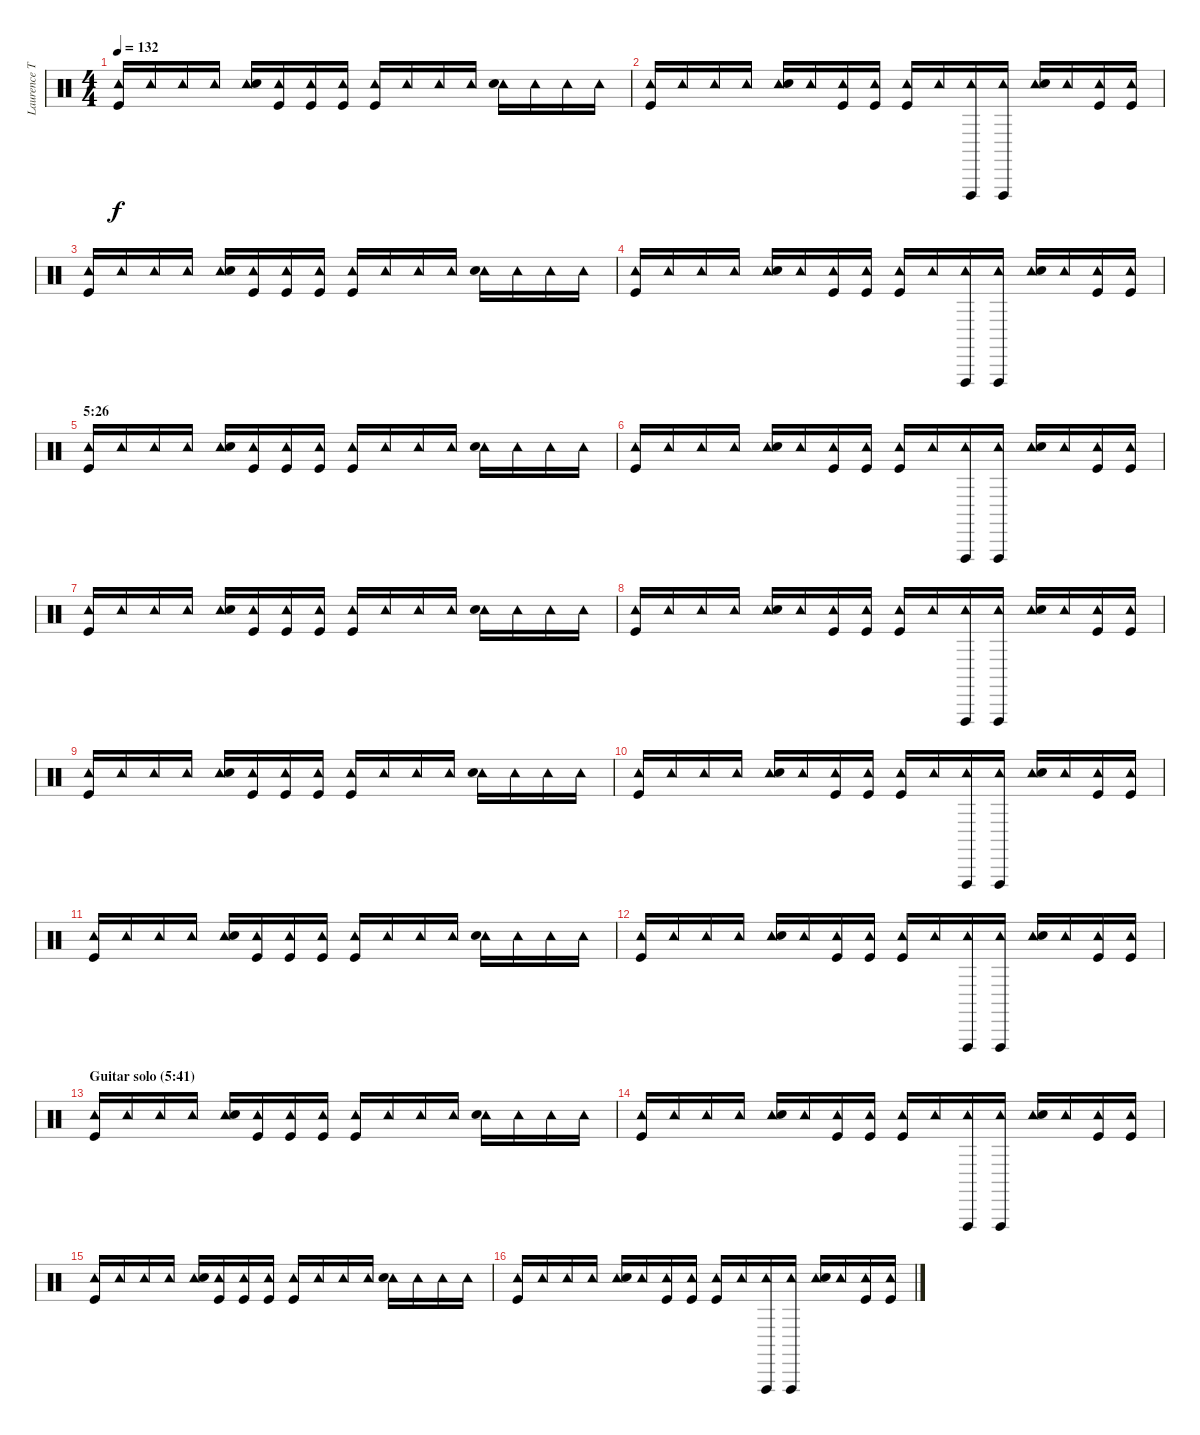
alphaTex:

\track ("Laurence Tolhurst (drums)" "Laurence T") {instrument percussion}
\staff {score}
\articulation defaults
\ts (4 4)
\tempo 132
\clef neutral
\ks c
("Tambourine (hit)" "Kick (hit)").16{dy f} "Tambourine (hit)".16 "Tambourine (hit)".16 "Tambourine (hit)".16 ("Tambourine (hit)" "Snare (hit) 2").16 ("Tambourine (hit)" "Kick (hit)").16 ("Tambourine (hit)" "Kick (hit)").16 ("Tambourine (hit)" "Kick (hit)").16 ("Tambourine (hit)" "Kick (hit)").16 "Tambourine (hit)".16 "Tambourine (hit)".16 "Tambourine (hit)".16 ("Tambourine (hit)" "Snare (hit) 2").16 "Tambourine (hit)".16 "Tambourine (hit)".16 "Tambourine (hit)".16 |
("Tambourine (hit)" "Kick (hit)").16 "Tambourine (hit)".16 "Tambourine (hit)".16 "Tambourine (hit)".16 ("Tambourine (hit)" "Snare (hit) 2").16 "Tambourine (hit)".16 ("Tambourine (hit)" "Kick (hit)").16 ("Tambourine (hit)" "Kick (hit)").16 ("Tambourine (hit)" "Kick (hit)").16 "Tambourine (hit)".16 ("Tambourine (hit)" "Vibraslap (hit)").16 ("Tambourine (hit)" "Vibraslap (hit)").16 ("Tambourine (hit)" "Snare (hit) 2").16 "Tambourine (hit)".16 ("Tambourine (hit)" "Kick (hit)").16 ("Tambourine (hit)" "Kick (hit)").16 |
("Tambourine (hit)" "Kick (hit)").16 "Tambourine (hit)".16 "Tambourine (hit)".16 "Tambourine (hit)".16 ("Tambourine (hit)" "Snare (hit) 2").16 ("Tambourine (hit)" "Kick (hit)").16 ("Tambourine (hit)" "Kick (hit)").16 ("Tambourine (hit)" "Kick (hit)").16 ("Tambourine (hit)" "Kick (hit)").16 "Tambourine (hit)".16 "Tambourine (hit)".16 "Tambourine (hit)".16 ("Tambourine (hit)" "Snare (hit) 2").16 "Tambourine (hit)".16 "Tambourine (hit)".16 "Tambourine (hit)".16 |
("Tambourine (hit)" "Kick (hit)").16 "Tambourine (hit)".16 "Tambourine (hit)".16 "Tambourine (hit)".16 ("Tambourine (hit)" "Snare (hit) 2").16 "Tambourine (hit)".16 ("Tambourine (hit)" "Kick (hit)").16 ("Tambourine (hit)" "Kick (hit)").16 ("Tambourine (hit)" "Kick (hit)").16 "Tambourine (hit)".16 ("Tambourine (hit)" "Vibraslap (hit)").16 ("Tambourine (hit)" "Vibraslap (hit)").16 ("Tambourine (hit)" "Snare (hit) 2").16 "Tambourine (hit)".16 ("Tambourine (hit)" "Kick (hit)").16 ("Tambourine (hit)" "Kick (hit)").16 |
\section ("" "5:26")
("Tambourine (hit)" "Kick (hit)").16 "Tambourine (hit)".16 "Tambourine (hit)".16 "Tambourine (hit)".16 ("Tambourine (hit)" "Snare (hit) 2").16 ("Tambourine (hit)" "Kick (hit)").16 ("Tambourine (hit)" "Kick (hit)").16 ("Tambourine (hit)" "Kick (hit)").16 ("Tambourine (hit)" "Kick (hit)").16 "Tambourine (hit)".16 "Tambourine (hit)".16 "Tambourine (hit)".16 ("Tambourine (hit)" "Snare (hit) 2").16 "Tambourine (hit)".16 "Tambourine (hit)".16 "Tambourine (hit)".16 |
("Tambourine (hit)" "Kick (hit)").16 "Tambourine (hit)".16 "Tambourine (hit)".16 "Tambourine (hit)".16 ("Tambourine (hit)" "Snare (hit) 2").16 "Tambourine (hit)".16 ("Tambourine (hit)" "Kick (hit)").16 ("Tambourine (hit)" "Kick (hit)").16 ("Tambourine (hit)" "Kick (hit)").16 "Tambourine (hit)".16 ("Tambourine (hit)" "Vibraslap (hit)").16 ("Tambourine (hit)" "Vibraslap (hit)").16 ("Tambourine (hit)" "Snare (hit) 2").16 "Tambourine (hit)".16 ("Tambourine (hit)" "Kick (hit)").16 ("Tambourine (hit)" "Kick (hit)").16 |
("Tambourine (hit)" "Kick (hit)").16 "Tambourine (hit)".16 "Tambourine (hit)".16 "Tambourine (hit)".16 ("Tambourine (hit)" "Snare (hit) 2").16 ("Tambourine (hit)" "Kick (hit)").16 ("Tambourine (hit)" "Kick (hit)").16 ("Tambourine (hit)" "Kick (hit)").16 ("Tambourine (hit)" "Kick (hit)").16 "Tambourine (hit)".16 "Tambourine (hit)".16 "Tambourine (hit)".16 ("Tambourine (hit)" "Snare (hit) 2").16 "Tambourine (hit)".16 "Tambourine (hit)".16 "Tambourine (hit)".16 |
("Tambourine (hit)" "Kick (hit)").16 "Tambourine (hit)".16 "Tambourine (hit)".16 "Tambourine (hit)".16 ("Tambourine (hit)" "Snare (hit) 2").16 "Tambourine (hit)".16 ("Tambourine (hit)" "Kick (hit)").16 ("Tambourine (hit)" "Kick (hit)").16 ("Tambourine (hit)" "Kick (hit)").16 "Tambourine (hit)".16 ("Tambourine (hit)" "Vibraslap (hit)").16 ("Tambourine (hit)" "Vibraslap (hit)").16 ("Tambourine (hit)" "Snare (hit) 2").16 "Tambourine (hit)".16 ("Tambourine (hit)" "Kick (hit)").16 ("Tambourine (hit)" "Kick (hit)").16 |
("Tambourine (hit)" "Kick (hit)").16 "Tambourine (hit)".16 "Tambourine (hit)".16 "Tambourine (hit)".16 ("Tambourine (hit)" "Snare (hit) 2").16 ("Tambourine (hit)" "Kick (hit)").16 ("Tambourine (hit)" "Kick (hit)").16 ("Tambourine (hit)" "Kick (hit)").16 ("Tambourine (hit)" "Kick (hit)").16 "Tambourine (hit)".16 "Tambourine (hit)".16 "Tambourine (hit)".16 ("Tambourine (hit)" "Snare (hit) 2").16 "Tambourine (hit)".16 "Tambourine (hit)".16 "Tambourine (hit)".16 |
("Tambourine (hit)" "Kick (hit)").16 "Tambourine (hit)".16 "Tambourine (hit)".16 "Tambourine (hit)".16 ("Tambourine (hit)" "Snare (hit) 2").16 "Tambourine (hit)".16 ("Tambourine (hit)" "Kick (hit)").16 ("Tambourine (hit)" "Kick (hit)").16 ("Tambourine (hit)" "Kick (hit)").16 "Tambourine (hit)".16 ("Tambourine (hit)" "Vibraslap (hit)").16 ("Tambourine (hit)" "Vibraslap (hit)").16 ("Tambourine (hit)" "Snare (hit) 2").16 "Tambourine (hit)".16 ("Tambourine (hit)" "Kick (hit)").16 ("Tambourine (hit)" "Kick (hit)").16 |
("Tambourine (hit)" "Kick (hit)").16 "Tambourine (hit)".16 "Tambourine (hit)".16 "Tambourine (hit)".16 ("Tambourine (hit)" "Snare (hit) 2").16 ("Tambourine (hit)" "Kick (hit)").16 ("Tambourine (hit)" "Kick (hit)").16 ("Tambourine (hit)" "Kick (hit)").16 ("Tambourine (hit)" "Kick (hit)").16 "Tambourine (hit)".16 "Tambourine (hit)".16 "Tambourine (hit)".16 ("Tambourine (hit)" "Snare (hit) 2").16 "Tambourine (hit)".16 "Tambourine (hit)".16 "Tambourine (hit)".16 |
("Tambourine (hit)" "Kick (hit)").16 "Tambourine (hit)".16 "Tambourine (hit)".16 "Tambourine (hit)".16 ("Tambourine (hit)" "Snare (hit) 2").16 "Tambourine (hit)".16 ("Tambourine (hit)" "Kick (hit)").16 ("Tambourine (hit)" "Kick (hit)").16 ("Tambourine (hit)" "Kick (hit)").16 "Tambourine (hit)".16 ("Tambourine (hit)" "Vibraslap (hit)").16 ("Tambourine (hit)" "Vibraslap (hit)").16 ("Tambourine (hit)" "Snare (hit) 2").16 "Tambourine (hit)".16 ("Tambourine (hit)" "Kick (hit)").16 ("Tambourine (hit)" "Kick (hit)").16 |
\section ("" "Guitar solo (5:41)")
("Tambourine (hit)" "Kick (hit)").16 "Tambourine (hit)".16 "Tambourine (hit)".16 "Tambourine (hit)".16 ("Tambourine (hit)" "Snare (hit) 2").16 ("Tambourine (hit)" "Kick (hit)").16 ("Tambourine (hit)" "Kick (hit)").16 ("Tambourine (hit)" "Kick (hit)").16 ("Tambourine (hit)" "Kick (hit)").16 "Tambourine (hit)".16 "Tambourine (hit)".16 "Tambourine (hit)".16 ("Tambourine (hit)" "Snare (hit) 2").16 "Tambourine (hit)".16 "Tambourine (hit)".16 "Tambourine (hit)".16 |
("Tambourine (hit)" "Kick (hit)").16 "Tambourine (hit)".16 "Tambourine (hit)".16 "Tambourine (hit)".16 ("Tambourine (hit)" "Snare (hit) 2").16 "Tambourine (hit)".16 ("Tambourine (hit)" "Kick (hit)").16 ("Tambourine (hit)" "Kick (hit)").16 ("Tambourine (hit)" "Kick (hit)").16 "Tambourine (hit)".16 ("Tambourine (hit)" "Vibraslap (hit)").16 ("Tambourine (hit)" "Vibraslap (hit)").16 ("Tambourine (hit)" "Snare (hit) 2").16 "Tambourine (hit)".16 ("Tambourine (hit)" "Kick (hit)").16 ("Tambourine (hit)" "Kick (hit)").16 |
("Tambourine (hit)" "Kick (hit)").16 "Tambourine (hit)".16 "Tambourine (hit)".16 "Tambourine (hit)".16 ("Tambourine (hit)" "Snare (hit) 2").16 ("Tambourine (hit)" "Kick (hit)").16 ("Tambourine (hit)" "Kick (hit)").16 ("Tambourine (hit)" "Kick (hit)").16 ("Tambourine (hit)" "Kick (hit)").16 "Tambourine (hit)".16 "Tambourine (hit)".16 "Tambourine (hit)".16 ("Tambourine (hit)" "Snare (hit) 2").16 "Tambourine (hit)".16 "Tambourine (hit)".16 "Tambourine (hit)".16 |
("Tambourine (hit)" "Kick (hit)").16 "Tambourine (hit)".16 "Tambourine (hit)".16 "Tambourine (hit)".16 ("Tambourine (hit)" "Snare (hit) 2").16 "Tambourine (hit)".16 ("Tambourine (hit)" "Kick (hit)").16 ("Tambourine (hit)" "Kick (hit)").16 ("Tambourine (hit)" "Kick (hit)").16 "Tambourine (hit)".16 ("Tambourine (hit)" "Vibraslap (hit)").16 ("Tambourine (hit)" "Vibraslap (hit)").16 ("Tambourine (hit)" "Snare (hit) 2").16 "Tambourine (hit)".16 ("Tambourine (hit)" "Kick (hit)").16 ("Tambourine (hit)" "Kick (hit)").16
